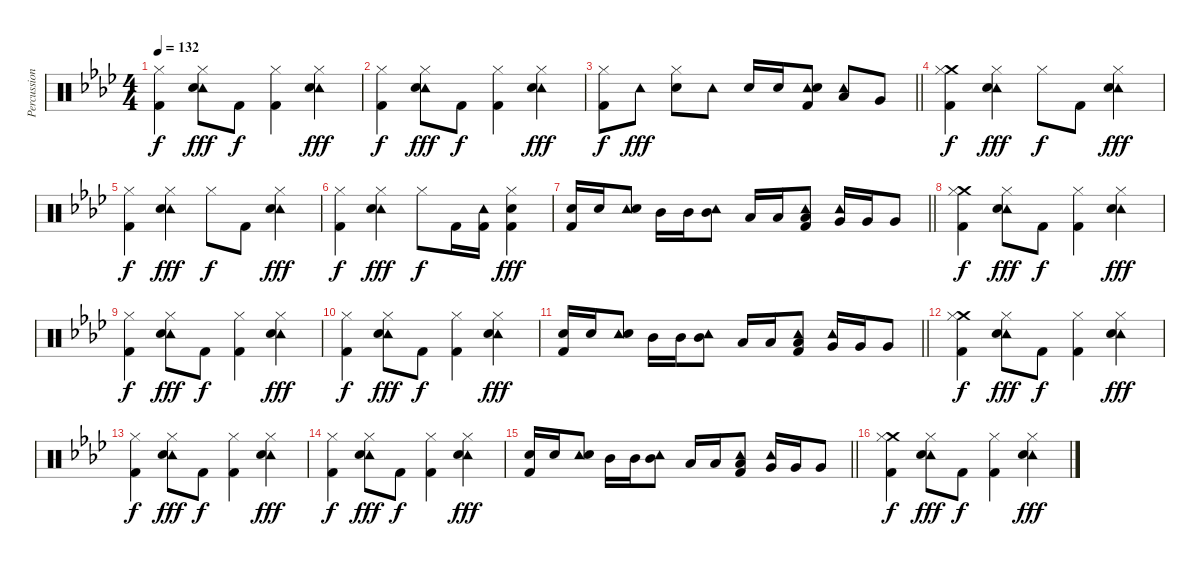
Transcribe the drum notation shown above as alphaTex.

\track ("Percussion - Nigel Olsen/Ray Cooper" "Percussion") {instrument percussion}
\staff {score}
\articulation defaults
\ts (4 4)
\tempo 132
\clef neutral
\ks ab
("Hi-Hat (closed)" "Kick (hit) 2").4{dy f} ("Tambourine (hit)" "Hi-Hat (closed)" "Snare (hit) 2").8{dy fff} "Kick (hit) 2".8{dy f} ("Hi-Hat (closed)" "Kick (hit) 2").4 ("Tambourine (hit)" "Hi-Hat (closed)" "Snare (hit) 2").4{dy fff} |
("Hi-Hat (closed)" "Kick (hit) 2").4{dy f} ("Tambourine (hit)" "Hi-Hat (closed)" "Snare (hit) 2").8{dy fff} "Kick (hit) 2".8{dy f} ("Hi-Hat (closed)" "Kick (hit) 2").4 ("Tambourine (hit)" "Hi-Hat (closed)" "Snare (hit) 2").4{dy fff} |
\barLineRight lightlight
("Hi-Hat (closed)" "Kick (hit) 2").8{dy f} "Tambourine (hit)".8{dy fff} ("Hi-Hat (closed)" "Snare (hit) 2").8 "Tambourine (hit)".8 "Snare (hit) 2".16 "Snare (hit) 2".16 ("Tambourine (hit)" "Snare (hit) 2" "Kick (hit) 2").8 ("Tambourine (hit)" "Low Tom (hit)").8 "Very Low Tom (hit)".8 |
("Crash medium (hit)" "Hi-Hat (closed)" "Kick (hit) 2").4{dy f} ("Tambourine (hit)" "Hi-Hat (closed)" "Snare (hit) 2").4{dy fff} "Hi-Hat (closed)".8{dy f} "Kick (hit) 2".8 ("Tambourine (hit)" "Hi-Hat (closed)" "Snare (hit) 2").4{dy fff} |
("Hi-Hat (closed)" "Kick (hit) 2").4{dy f} ("Tambourine (hit)" "Hi-Hat (closed)" "Snare (hit) 2").4{dy fff} "Hi-Hat (closed)".8{dy f} "Kick (hit) 2".8 ("Tambourine (hit)" "Hi-Hat (closed)" "Snare (hit) 2").4{dy fff} |
("Hi-Hat (closed)" "Kick (hit) 2").4{dy f} ("Tambourine (hit)" "Hi-Hat (closed)" "Snare (hit) 2").4{dy fff} "Hi-Hat (closed)".8{dy f} "Kick (hit) 2".16 ("Tambourine (hit)" "Kick (hit) 2").16 ("Hi-Hat (closed)" "Snare (hit) 2" "Kick (hit) 2").4{dy fff} |
\barLineRight lightlight
("Snare (hit) 2" "Kick (hit) 2").16 "Snare (hit) 2".16 ("Tambourine (hit)" "Snare (hit) 2").8 "Mid Tom (hit)".16 "Mid Tom (hit)".16 ("Tambourine (hit)" "Mid Tom (hit)").8 "Low Tom (hit)".16 "Low Tom (hit)".16 ("Tambourine (hit)" "Low Tom (hit)" "Kick (hit) 2").8 ("Tambourine (hit)" "Very Low Tom (hit)").16 "Very Low Tom (hit)".16 "Very Low Tom (hit)".8 |
("Crash medium (hit)" "Hi-Hat (closed)" "Kick (hit) 2").4{dy f} ("Tambourine (hit)" "Hi-Hat (closed)" "Snare (hit) 2").8{dy fff} "Kick (hit) 2".8{dy f} ("Hi-Hat (closed)" "Kick (hit) 2").4 ("Tambourine (hit)" "Hi-Hat (closed)" "Snare (hit) 2").4{dy fff} |
("Hi-Hat (closed)" "Kick (hit) 2").4{dy f} ("Tambourine (hit)" "Hi-Hat (closed)" "Snare (hit) 2").8{dy fff} "Kick (hit) 2".8{dy f} ("Hi-Hat (closed)" "Kick (hit) 2").4 ("Tambourine (hit)" "Hi-Hat (closed)" "Snare (hit) 2").4{dy fff} |
("Hi-Hat (closed)" "Kick (hit) 2").4{dy f} ("Tambourine (hit)" "Hi-Hat (closed)" "Snare (hit) 2").8{dy fff} "Kick (hit) 2".8{dy f} ("Hi-Hat (closed)" "Kick (hit) 2").4 ("Tambourine (hit)" "Hi-Hat (closed)" "Snare (hit) 2").4{dy fff} |
\barLineRight lightlight
("Snare (hit) 2" "Kick (hit) 2").16 "Snare (hit) 2".16 ("Tambourine (hit)" "Snare (hit) 2").8 "Mid Tom (hit)".16 "Mid Tom (hit)".16 ("Tambourine (hit)" "Mid Tom (hit)").8 "Low Tom (hit)".16 "Low Tom (hit)".16 ("Tambourine (hit)" "Low Tom (hit)" "Kick (hit) 2").8 ("Tambourine (hit)" "Very Low Tom (hit)").16 "Very Low Tom (hit)".16 "Very Low Tom (hit)".8 |
("Crash medium (hit)" "Hi-Hat (closed)" "Kick (hit) 2").4{dy f} ("Tambourine (hit)" "Hi-Hat (closed)" "Snare (hit) 2").8{dy fff} "Kick (hit) 2".8{dy f} ("Hi-Hat (closed)" "Kick (hit) 2").4 ("Tambourine (hit)" "Hi-Hat (closed)" "Snare (hit) 2").4{dy fff} |
("Hi-Hat (closed)" "Kick (hit) 2").4{dy f} ("Tambourine (hit)" "Hi-Hat (closed)" "Snare (hit) 2").8{dy fff} "Kick (hit) 2".8{dy f} ("Hi-Hat (closed)" "Kick (hit) 2").4 ("Tambourine (hit)" "Hi-Hat (closed)" "Snare (hit) 2").4{dy fff} |
("Hi-Hat (closed)" "Kick (hit) 2").4{dy f} ("Tambourine (hit)" "Hi-Hat (closed)" "Snare (hit) 2").8{dy fff} "Kick (hit) 2".8{dy f} ("Hi-Hat (closed)" "Kick (hit) 2").4 ("Tambourine (hit)" "Hi-Hat (closed)" "Snare (hit) 2").4{dy fff} |
\barLineRight lightlight
("Snare (hit) 2" "Kick (hit) 2").16 "Snare (hit) 2".16 ("Tambourine (hit)" "Snare (hit) 2").8 "Mid Tom (hit)".16 "Mid Tom (hit)".16 ("Tambourine (hit)" "Mid Tom (hit)").8 "Low Tom (hit)".16 "Low Tom (hit)".16 ("Tambourine (hit)" "Low Tom (hit)" "Kick (hit) 2").8 ("Tambourine (hit)" "Very Low Tom (hit)").16 "Very Low Tom (hit)".16 "Very Low Tom (hit)".8 |
("Crash medium (hit)" "Hi-Hat (closed)" "Kick (hit) 2").4{dy f} ("Tambourine (hit)" "Hi-Hat (closed)" "Snare (hit) 2").8{dy fff} "Kick (hit) 2".8{dy f} ("Hi-Hat (closed)" "Kick (hit) 2").4 ("Tambourine (hit)" "Hi-Hat (closed)" "Snare (hit) 2").4{dy fff}
